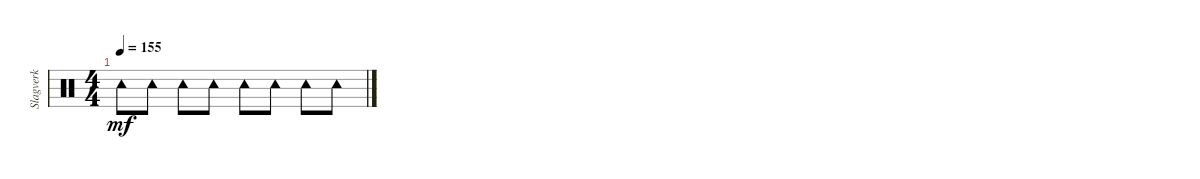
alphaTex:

\track ("Slagverk" "Slagverk") {instrument percussion}
\staff {score}
\articulation defaults
\ts (4 4)
\tempo 155
\clef neutral
\ks c "Tambourine (hit)".8{dy mf} "Tambourine (hit)".8 "Tambourine (hit)".8 "Tambourine (hit)".8 "Tambourine (hit)".8 "Tambourine (hit)".8 "Tambourine (hit)".8 "Tambourine (hit)".8
